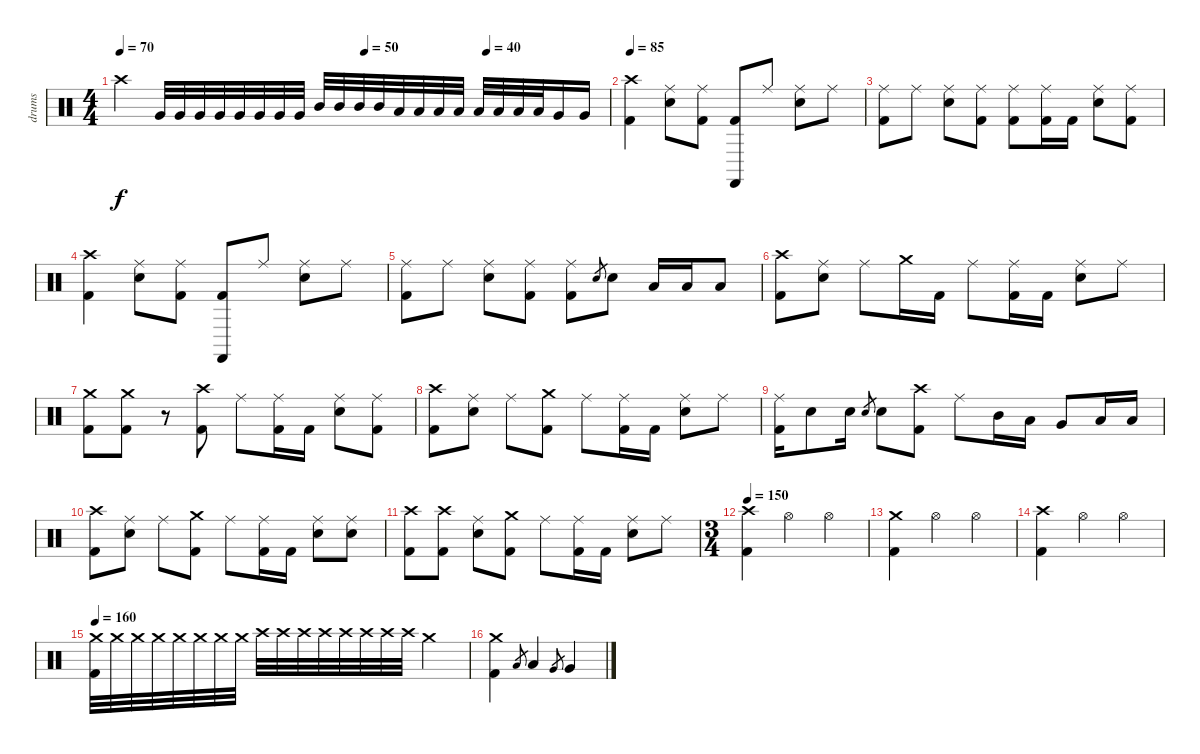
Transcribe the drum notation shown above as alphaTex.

\track ("drums" "drums") {instrument percussion}
\staff {score}
\articulation defaults
\ts (4 4)
\tempo 70
\tempo (50 0.5)
\tempo (40 0.75)
\clef neutral
\ks c "Crash high (hit)".4{dy f} "Very Low Tom (hit)".32 "Very Low Tom (hit)".32 "Very Low Tom (hit)".32 "Very Low Tom (hit)".32 "Very Low Tom (hit)".32 "Very Low Tom (hit)".32 "Very Low Tom (hit)".32 "Very Low Tom (hit)".32 "Mid Tom (hit)".32 "Mid Tom (hit)".32 "Mid Tom (hit)".32 "Mid Tom (hit)".32 "Low Tom (hit)".32 "Low Tom (hit)".32 "Low Tom (hit)".32 "Low Tom (hit)".32 "Low Tom (hit)".32 "Low Tom (hit)".32 "Low Tom (hit)".32 "Low Tom (hit)".32 "Very Low Tom (hit)".16 "Very Low Tom (hit)".16
|
\tempo 85
("Crash high (hit)" "Kick (hit) 2").4 ("Ride (middle)" "Electric Snare (hit)").8 ("Ride (middle)" "Kick (hit) 2").8 ("Castanets (hit)" "Kick (hit) 2").8 "Ride (middle)".8 ("Ride (middle)" "Electric Snare (hit)").8 "Ride (middle)".8 |
("Ride (middle)" "Kick (hit) 2").8 "Ride (middle)".8 ("Ride (middle)" "Electric Snare (hit)").8 ("Ride (middle)" "Kick (hit) 2").8 ("Ride (middle)" "Kick (hit) 2").8 ("Ride (middle)" "Kick (hit) 2").16 "Kick (hit) 2".16 ("Ride (middle)" "Electric Snare (hit)").8 ("Ride (middle)" "Kick (hit) 2").8 |
("Crash high (hit)" "Kick (hit) 2").4 ("Ride (middle)" "Electric Snare (hit)").8 ("Ride (middle)" "Kick (hit) 2").8 ("Castanets (hit)" "Kick (hit) 2").8 "Ride (middle)".8 ("Ride (middle)" "Electric Snare (hit)").8 "Ride (middle)".8 |
("Ride (middle)" "Kick (hit) 2").8 "Ride (middle)".8 ("Ride (middle)" "Electric Snare (hit)").8 ("Ride (middle)" "Kick (hit) 2").8 ("Ride (middle)" "Kick (hit) 2").8 "Electric Snare (hit)".8{gr} "Electric Snare (hit)".8 "Low Tom (hit)".16 "Low Tom (hit)".16 "Low Tom (hit)".8 |
("Crash high (hit)" "Kick (hit) 2").8 ("Ride (middle)" "Electric Snare (hit)").8 "Ride (middle)".8 "Crash medium (hit)".16 "Kick (hit) 2".16 "Ride (middle)".8 ("Ride (middle)" "Kick (hit) 2").16 "Kick (hit) 2".16 ("Ride (middle)" "Electric Snare (hit)").8 "Ride (middle)".8 |
("Crash medium (hit)" "Kick (hit) 2").8 ("Crash medium (hit)" "Kick (hit) 2").8 r.8 ("Crash high (hit)" "Kick (hit) 2").8 "Ride (middle)".8 ("Ride (middle)" "Kick (hit) 2").16 "Kick (hit) 2".16 ("Ride (middle)" "Electric Snare (hit)").8 ("Ride (middle)" "Kick (hit) 2").8 |
("Crash high (hit)" "Kick (hit) 2").8 ("Ride (middle)" "Electric Snare (hit)").8 "Ride (middle)".8 ("Crash medium (hit)" "Kick (hit) 2").8 "Ride (middle)".8 ("Ride (middle)" "Kick (hit) 2").16 "Kick (hit) 2".16 ("Ride (middle)" "Electric Snare (hit)").8 "Ride (middle)".8 |
("Ride (middle)" "Kick (hit) 2").16 "Electric Snare (hit)".8 "Electric Snare (hit)".16 "Electric Snare (hit)".8{gr} "Electric Snare (hit)".8 ("Crash high (hit)" "Kick (hit) 2").8 "Ride (middle)".8 "Mid Tom (hit)".16 "Low Tom (hit)".16 "Very Low Tom (hit)".8 "Low Floor Tom (hit)".16 "Low Floor Tom (hit)".16 |
("Crash high (hit)" "Kick (hit) 2").8 ("Ride (middle)" "Electric Snare (hit)").8 "Ride (middle)".8 ("Crash medium (hit)" "Kick (hit) 2").8 "Ride (middle)".8 ("Ride (middle)" "Kick (hit) 2").16 "Kick (hit) 2".16 ("Ride (middle)" "Electric Snare (hit)").8 ("Ride (middle)" "Electric Snare (hit)").8 |
("Crash high (hit)" "Kick (hit) 2").8 ("Crash high (hit)" "Kick (hit) 2").8 ("Ride (middle)" "Electric Snare (hit)").8 ("Crash medium (hit)" "Kick (hit) 2").8 "Ride (middle)".8 ("Ride (middle)" "Kick (hit) 2").16 "Kick (hit) 2".16 ("Ride (middle)" "Electric Snare (hit)").8 "Ride (middle)".8 |
\ts (3 4)
\tempo 150
("Crash high (hit)" "Kick (hit) 2").4 "Hi-Hat (open)".4 "Hi-Hat (open)".4 |
("Crash medium (hit)" "Kick (hit) 2").4 "Hi-Hat (open)".4 "Hi-Hat (open)".4 |
("Crash high (hit)" "Kick (hit) 2").4 "Hi-Hat (open)".4 "Hi-Hat (open)".4 |
\tempo 160
("Crash medium (hit)" "Kick (hit) 2").32 "Crash medium (hit)".32 "Crash medium (hit)".32 "Crash medium (hit)".32 "Crash medium (hit)".32 "Crash medium (hit)".32 "Crash medium (hit)".32 "Crash medium (hit)".32 "Crash high (hit)".32 "Crash high (hit)".32 "Crash high (hit)".32 "Crash high (hit)".32 "Crash high (hit)".32 "Crash high (hit)".32 "Crash high (hit)".32 "Crash high (hit)".32 "Crash medium (hit)".4 |
("Crash medium (hit)" "Kick (hit) 2").4 "Low Tom (hit)".8{gr} "Low Tom (hit)".4 "Very Low Tom (hit)".8{gr} "Very Low Tom (hit)".4
